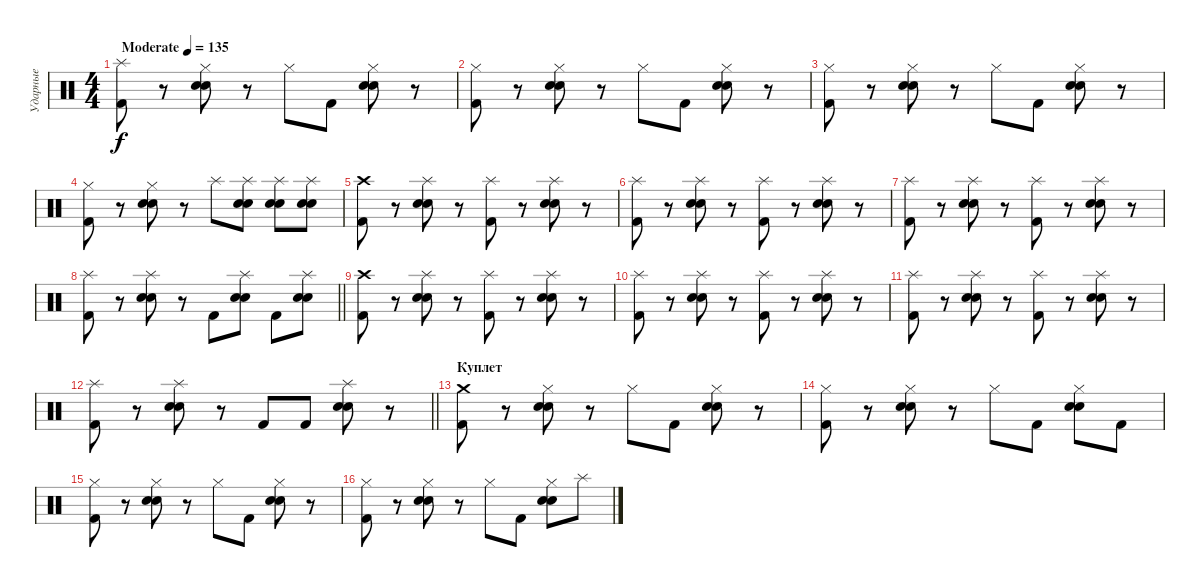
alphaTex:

\track ("Ударные" "Ударные") {instrument percussion}
\staff {score}
\articulation defaults
\ts (4 4)
\tempo (135 "Moderate")
\clef neutral
\ks c
("Splash (hit)" "Kick (hit) 2").8{dy f} r.8 ("Hi-Hat (closed)" "Electric Snare (hit)" "Snare (hit) 2").8 r.8 "Hi-Hat (closed)".8 "Kick (hit) 2".8 ("Hi-Hat (closed)" "Electric Snare (hit)" "Snare (hit) 2").8 r.8 |
("Hi-Hat (closed)" "Kick (hit) 2").8 r.8 ("Hi-Hat (closed)" "Electric Snare (hit)" "Snare (hit) 2").8 r.8 "Hi-Hat (closed)".8 "Kick (hit) 2".8 ("Hi-Hat (closed)" "Electric Snare (hit)" "Snare (hit) 2").8 r.8 |
("Hi-Hat (closed)" "Kick (hit) 2").8 r.8 ("Hi-Hat (closed)" "Electric Snare (hit)" "Snare (hit) 2").8 r.8 "Hi-Hat (closed)".8 "Kick (hit) 2".8 ("Hi-Hat (closed)" "Electric Snare (hit)" "Snare (hit) 2").8 r.8 |
("Hi-Hat (closed)" "Kick (hit) 2").8 r.8 ("Hi-Hat (closed)" "Electric Snare (hit)" "Snare (hit) 2").8 r.8 "Splash (hit)".8 ("Splash (hit)" "Electric Snare (hit)" "Snare (hit) 2").8 ("Splash (hit)" "Electric Snare (hit)" "Snare (hit) 2").8 ("Splash (hit)" "Electric Snare (hit)" "Snare (hit) 2").8 |
("Crash high (hit)" "Kick (hit) 2").8 r.8 ("Splash (hit)" "Electric Snare (hit)" "Snare (hit) 2").8 r.8 ("Splash (hit)" "Kick (hit) 2").8 r.8 ("Splash (hit)" "Electric Snare (hit)" "Snare (hit) 2").8 r.8 |
("Splash (hit)" "Kick (hit) 2").8 r.8 ("Splash (hit)" "Electric Snare (hit)" "Snare (hit) 2").8 r.8 ("Splash (hit)" "Kick (hit) 2").8 r.8 ("Splash (hit)" "Electric Snare (hit)" "Snare (hit) 2").8 r.8 |
("Splash (hit)" "Kick (hit) 2").8 r.8 ("Splash (hit)" "Electric Snare (hit)" "Snare (hit) 2").8 r.8 ("Splash (hit)" "Kick (hit) 2").8 r.8 ("Splash (hit)" "Electric Snare (hit)" "Snare (hit) 2").8 r.8 |
\barLineRight lightlight
("Splash (hit)" "Kick (hit) 2").8 r.8 ("Splash (hit)" "Electric Snare (hit)" "Snare (hit) 2").8 r.8 "Kick (hit) 2".8 ("Splash (hit)" "Electric Snare (hit)" "Snare (hit) 2").8 "Kick (hit) 2".8 ("Splash (hit)" "Electric Snare (hit)" "Snare (hit) 2").8 |
("Crash high (hit)" "Kick (hit) 2").8 r.8 ("Splash (hit)" "Electric Snare (hit)" "Snare (hit) 2").8 r.8 ("Splash (hit)" "Kick (hit) 2").8 r.8 ("Splash (hit)" "Electric Snare (hit)" "Snare (hit) 2").8 r.8 |
("Splash (hit)" "Kick (hit) 2").8 r.8 ("Splash (hit)" "Electric Snare (hit)" "Snare (hit) 2").8 r.8 ("Splash (hit)" "Kick (hit) 2").8 r.8 ("Splash (hit)" "Electric Snare (hit)" "Snare (hit) 2").8 r.8 |
("Splash (hit)" "Kick (hit) 2").8 r.8 ("Splash (hit)" "Electric Snare (hit)" "Snare (hit) 2").8 r.8 ("Splash (hit)" "Kick (hit) 2").8 r.8 ("Splash (hit)" "Electric Snare (hit)" "Snare (hit) 2").8 r.8 |
\barLineRight lightlight
("Splash (hit)" "Kick (hit) 2").8 r.8 ("Splash (hit)" "Electric Snare (hit)" "Snare (hit) 2").8 r.8 "Kick (hit) 2".8 "Kick (hit) 2".8 ("Splash (hit)" "Electric Snare (hit)" "Snare (hit) 2").8 r.8 |
\section ("" "Куплет")
("Crash medium (hit)" "Kick (hit) 2").8 r.8 ("Hi-Hat (closed)" "Electric Snare (hit)" "Snare (hit) 2").8 r.8 "Hi-Hat (closed)".8 "Kick (hit) 2".8 ("Hi-Hat (closed)" "Electric Snare (hit)" "Snare (hit) 2").8 r.8 |
("Hi-Hat (closed)" "Kick (hit) 2").8 r.8 ("Hi-Hat (closed)" "Electric Snare (hit)" "Snare (hit) 2").8 r.8 "Hi-Hat (closed)".8 "Kick (hit) 2".8 ("Hi-Hat (closed)" "Electric Snare (hit)" "Snare (hit) 2").8 "Kick (hit) 2".8 |
("Hi-Hat (closed)" "Kick (hit) 2").8 r.8 ("Hi-Hat (closed)" "Electric Snare (hit)" "Snare (hit) 2").8 r.8 "Hi-Hat (closed)".8 "Kick (hit) 2".8 ("Hi-Hat (closed)" "Electric Snare (hit)" "Snare (hit) 2").8 r.8 |
("Hi-Hat (closed)" "Kick (hit) 2").8 r.8 ("Hi-Hat (closed)" "Electric Snare (hit)" "Snare (hit) 2").8 r.8 "Hi-Hat (closed)".8 "Kick (hit) 2".8 ("Hi-Hat (closed)" "Electric Snare (hit)" "Snare (hit) 2").8 "Splash (hit)".8
